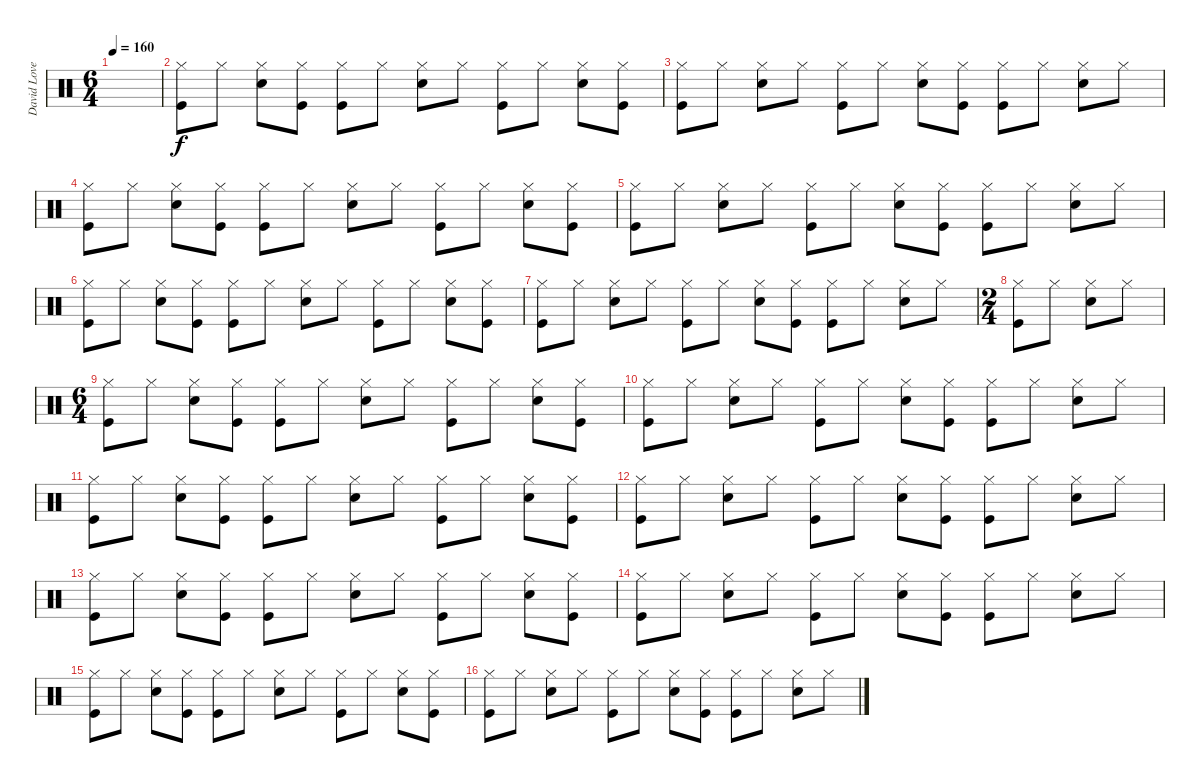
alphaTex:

\track ("David Lovering" "David Love") {instrument percussion}
\staff {score}
\articulation defaults
\ts (6 4)
\tempo 160
\clef neutral
\ks c
|
("Hi-Hat (closed)" "Kick (hit)").8 "Hi-Hat (closed)".8 ("Hi-Hat (closed)" "Snare (hit) 2").8 ("Hi-Hat (closed)" "Kick (hit)").8 ("Hi-Hat (closed)" "Kick (hit)").8 "Hi-Hat (closed)".8 ("Hi-Hat (closed)" "Snare (hit) 2").8 "Hi-Hat (closed)".8 ("Hi-Hat (closed)" "Kick (hit)").8 "Hi-Hat (closed)".8 ("Hi-Hat (closed)" "Snare (hit) 2").8 ("Hi-Hat (closed)" "Kick (hit)").8 |
("Hi-Hat (closed)" "Kick (hit)").8 "Hi-Hat (closed)".8 ("Hi-Hat (closed)" "Snare (hit) 2").8 "Hi-Hat (closed)".8 ("Hi-Hat (closed)" "Kick (hit)").8 "Hi-Hat (closed)".8 ("Hi-Hat (closed)" "Snare (hit) 2").8 ("Hi-Hat (closed)" "Kick (hit)").8 ("Hi-Hat (closed)" "Kick (hit)").8 "Hi-Hat (closed)".8 ("Hi-Hat (closed)" "Snare (hit) 2").8 "Hi-Hat (closed)".8 |
("Hi-Hat (closed)" "Kick (hit)").8 "Hi-Hat (closed)".8 ("Hi-Hat (closed)" "Snare (hit) 2").8 ("Hi-Hat (closed)" "Kick (hit)").8 ("Hi-Hat (closed)" "Kick (hit)").8 "Hi-Hat (closed)".8 ("Hi-Hat (closed)" "Snare (hit) 2").8 "Hi-Hat (closed)".8 ("Hi-Hat (closed)" "Kick (hit)").8 "Hi-Hat (closed)".8 ("Hi-Hat (closed)" "Snare (hit) 2").8 ("Hi-Hat (closed)" "Kick (hit)").8 |
("Hi-Hat (closed)" "Kick (hit)").8 "Hi-Hat (closed)".8 ("Hi-Hat (closed)" "Snare (hit) 2").8 "Hi-Hat (closed)".8 ("Hi-Hat (closed)" "Kick (hit)").8 "Hi-Hat (closed)".8 ("Hi-Hat (closed)" "Snare (hit) 2").8 ("Hi-Hat (closed)" "Kick (hit)").8 ("Hi-Hat (closed)" "Kick (hit)").8 "Hi-Hat (closed)".8 ("Hi-Hat (closed)" "Snare (hit) 2").8 "Hi-Hat (closed)".8 |
("Hi-Hat (closed)" "Kick (hit)").8 "Hi-Hat (closed)".8 ("Hi-Hat (closed)" "Snare (hit) 2").8 ("Hi-Hat (closed)" "Kick (hit)").8 ("Hi-Hat (closed)" "Kick (hit)").8 "Hi-Hat (closed)".8 ("Hi-Hat (closed)" "Snare (hit) 2").8 "Hi-Hat (closed)".8 ("Hi-Hat (closed)" "Kick (hit)").8 "Hi-Hat (closed)".8 ("Hi-Hat (closed)" "Snare (hit) 2").8 ("Hi-Hat (closed)" "Kick (hit)").8 |
("Hi-Hat (closed)" "Kick (hit)").8 "Hi-Hat (closed)".8 ("Hi-Hat (closed)" "Snare (hit) 2").8 "Hi-Hat (closed)".8 ("Hi-Hat (closed)" "Kick (hit)").8 "Hi-Hat (closed)".8 ("Hi-Hat (closed)" "Snare (hit) 2").8 ("Hi-Hat (closed)" "Kick (hit)").8 ("Hi-Hat (closed)" "Kick (hit)").8 "Hi-Hat (closed)".8 ("Hi-Hat (closed)" "Snare (hit) 2").8 "Hi-Hat (closed)".8 |
\ts (2 4)
("Hi-Hat (closed)" "Kick (hit)").8 "Hi-Hat (closed)".8 ("Hi-Hat (closed)" "Snare (hit) 2").8 "Hi-Hat (closed)".8 |
\ts (6 4)
\section ("" "")
("Hi-Hat (closed)" "Kick (hit)").8 "Hi-Hat (closed)".8 ("Hi-Hat (closed)" "Snare (hit) 2").8 ("Hi-Hat (closed)" "Kick (hit)").8 ("Hi-Hat (closed)" "Kick (hit)").8 "Hi-Hat (closed)".8 ("Hi-Hat (closed)" "Snare (hit) 2").8 "Hi-Hat (closed)".8 ("Hi-Hat (closed)" "Kick (hit)").8 "Hi-Hat (closed)".8 ("Hi-Hat (closed)" "Snare (hit) 2").8 ("Hi-Hat (closed)" "Kick (hit)").8 |
("Hi-Hat (closed)" "Kick (hit)").8 "Hi-Hat (closed)".8 ("Hi-Hat (closed)" "Snare (hit) 2").8 "Hi-Hat (closed)".8 ("Hi-Hat (closed)" "Kick (hit)").8 "Hi-Hat (closed)".8 ("Hi-Hat (closed)" "Snare (hit) 2").8 ("Hi-Hat (closed)" "Kick (hit)").8 ("Hi-Hat (closed)" "Kick (hit)").8 "Hi-Hat (closed)".8 ("Hi-Hat (closed)" "Snare (hit) 2").8 "Hi-Hat (closed)".8 |
("Hi-Hat (closed)" "Kick (hit)").8 "Hi-Hat (closed)".8 ("Hi-Hat (closed)" "Snare (hit) 2").8 ("Hi-Hat (closed)" "Kick (hit)").8 ("Hi-Hat (closed)" "Kick (hit)").8 "Hi-Hat (closed)".8 ("Hi-Hat (closed)" "Snare (hit) 2").8 "Hi-Hat (closed)".8 ("Hi-Hat (closed)" "Kick (hit)").8 "Hi-Hat (closed)".8 ("Hi-Hat (closed)" "Snare (hit) 2").8 ("Hi-Hat (closed)" "Kick (hit)").8 |
("Hi-Hat (closed)" "Kick (hit)").8 "Hi-Hat (closed)".8 ("Hi-Hat (closed)" "Snare (hit) 2").8 "Hi-Hat (closed)".8 ("Hi-Hat (closed)" "Kick (hit)").8 "Hi-Hat (closed)".8 ("Hi-Hat (closed)" "Snare (hit) 2").8 ("Hi-Hat (closed)" "Kick (hit)").8 ("Hi-Hat (closed)" "Kick (hit)").8 "Hi-Hat (closed)".8 ("Hi-Hat (closed)" "Snare (hit) 2").8 "Hi-Hat (closed)".8 |
("Hi-Hat (closed)" "Kick (hit)").8 "Hi-Hat (closed)".8 ("Hi-Hat (closed)" "Snare (hit) 2").8 ("Hi-Hat (closed)" "Kick (hit)").8 ("Hi-Hat (closed)" "Kick (hit)").8 "Hi-Hat (closed)".8 ("Hi-Hat (closed)" "Snare (hit) 2").8 "Hi-Hat (closed)".8 ("Hi-Hat (closed)" "Kick (hit)").8 "Hi-Hat (closed)".8 ("Hi-Hat (closed)" "Snare (hit) 2").8 ("Hi-Hat (closed)" "Kick (hit)").8 |
("Hi-Hat (closed)" "Kick (hit)").8 "Hi-Hat (closed)".8 ("Hi-Hat (closed)" "Snare (hit) 2").8 "Hi-Hat (closed)".8 ("Hi-Hat (closed)" "Kick (hit)").8 "Hi-Hat (closed)".8 ("Hi-Hat (closed)" "Snare (hit) 2").8 ("Hi-Hat (closed)" "Kick (hit)").8 ("Hi-Hat (closed)" "Kick (hit)").8 "Hi-Hat (closed)".8 ("Hi-Hat (closed)" "Snare (hit) 2").8 "Hi-Hat (closed)".8 |
("Hi-Hat (closed)" "Kick (hit)").8 "Hi-Hat (closed)".8 ("Hi-Hat (closed)" "Snare (hit) 2").8 ("Hi-Hat (closed)" "Kick (hit)").8 ("Hi-Hat (closed)" "Kick (hit)").8 "Hi-Hat (closed)".8 ("Hi-Hat (closed)" "Snare (hit) 2").8 "Hi-Hat (closed)".8 ("Hi-Hat (closed)" "Kick (hit)").8 "Hi-Hat (closed)".8 ("Hi-Hat (closed)" "Snare (hit) 2").8 ("Hi-Hat (closed)" "Kick (hit)").8 |
("Hi-Hat (closed)" "Kick (hit)").8 "Hi-Hat (closed)".8 ("Hi-Hat (closed)" "Snare (hit) 2").8 "Hi-Hat (closed)".8 ("Hi-Hat (closed)" "Kick (hit)").8 "Hi-Hat (closed)".8 ("Hi-Hat (closed)" "Snare (hit) 2").8 ("Hi-Hat (closed)" "Kick (hit)").8 ("Hi-Hat (closed)" "Kick (hit)").8 "Hi-Hat (closed)".8 ("Hi-Hat (closed)" "Snare (hit) 2").8 "Hi-Hat (closed)".8
